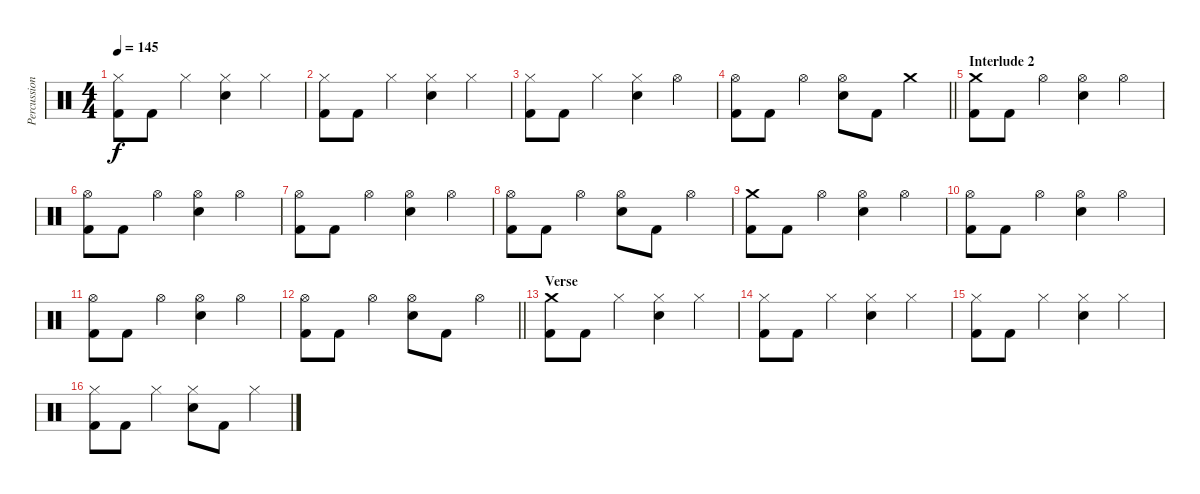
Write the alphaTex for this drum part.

\track ("Percussion" "Percussion") {instrument percussion}
\staff {score}
\articulation defaults
\ts (4 4)
\tempo 145
\clef neutral
\ks c
("Hi-Hat (closed)" "Kick (hit) 2").8{dy f} "Kick (hit) 2".8 "Hi-Hat (closed)".4 ("Hi-Hat (closed)" "Electric Snare (hit)").4 "Hi-Hat (closed)".4 |
("Hi-Hat (closed)" "Kick (hit) 2").8 "Kick (hit) 2".8 "Hi-Hat (closed)".4 ("Hi-Hat (closed)" "Electric Snare (hit)").4 "Hi-Hat (closed)".4 |
("Hi-Hat (closed)" "Kick (hit) 2").8 "Kick (hit) 2".8 "Hi-Hat (closed)".4 ("Hi-Hat (closed)" "Electric Snare (hit)").4 "Hi-Hat (open)".4 |
\barLineRight lightlight
("Hi-Hat (open)" "Kick (hit) 2").8 "Kick (hit) 2".8 "Hi-Hat (open)".4 ("Hi-Hat (open)" "Electric Snare (hit)").8 "Kick (hit) 2".8 "Crash medium (hit)".4 |
\section ("" "Interlude 2")
("Crash medium (hit)" "Kick (hit) 2").8 "Kick (hit) 2".8 "Hi-Hat (open)".4 ("Hi-Hat (open)" "Electric Snare (hit)").4 "Hi-Hat (open)".4 |
("Hi-Hat (open)" "Kick (hit) 2").8 "Kick (hit) 2".8 "Hi-Hat (open)".4 ("Hi-Hat (open)" "Electric Snare (hit)").4 "Hi-Hat (open)".4 |
("Hi-Hat (open)" "Kick (hit) 2").8 "Kick (hit) 2".8 "Hi-Hat (open)".4 ("Hi-Hat (open)" "Electric Snare (hit)").4 "Hi-Hat (open)".4 |
("Hi-Hat (open)" "Kick (hit) 2").8 "Kick (hit) 2".8 "Hi-Hat (open)".4 ("Hi-Hat (open)" "Electric Snare (hit)").8 "Kick (hit) 2".8 "Hi-Hat (open)".4 |
("Crash medium (hit)" "Kick (hit) 2").8 "Kick (hit) 2".8 "Hi-Hat (open)".4 ("Hi-Hat (open)" "Electric Snare (hit)").4 "Hi-Hat (open)".4 |
("Hi-Hat (open)" "Kick (hit) 2").8 "Kick (hit) 2".8 "Hi-Hat (open)".4 ("Hi-Hat (open)" "Electric Snare (hit)").4 "Hi-Hat (open)".4 |
("Hi-Hat (open)" "Kick (hit) 2").8 "Kick (hit) 2".8 "Hi-Hat (open)".4 ("Hi-Hat (open)" "Electric Snare (hit)").4 "Hi-Hat (open)".4 |
\barLineRight lightlight
("Hi-Hat (open)" "Kick (hit) 2").8 "Kick (hit) 2".8 "Hi-Hat (open)".4 ("Hi-Hat (open)" "Electric Snare (hit)").8 "Kick (hit) 2".8 "Hi-Hat (open)".4 |
\section ("" "Verse")
("Crash medium (hit)" "Kick (hit) 2").8 "Kick (hit) 2".8 "Hi-Hat (closed)".4 ("Hi-Hat (closed)" "Electric Snare (hit)").4 "Hi-Hat (closed)".4 |
("Hi-Hat (closed)" "Kick (hit) 2").8 "Kick (hit) 2".8 "Hi-Hat (closed)".4 ("Hi-Hat (closed)" "Electric Snare (hit)").4 "Hi-Hat (closed)".4 |
("Hi-Hat (closed)" "Kick (hit) 2").8 "Kick (hit) 2".8 "Hi-Hat (closed)".4 ("Hi-Hat (closed)" "Electric Snare (hit)").4 "Hi-Hat (closed)".4 |
("Hi-Hat (closed)" "Kick (hit) 2").8 "Kick (hit) 2".8 "Hi-Hat (closed)".4 ("Hi-Hat (closed)" "Electric Snare (hit)").8 "Kick (hit) 2".8 "Hi-Hat (closed)".4
